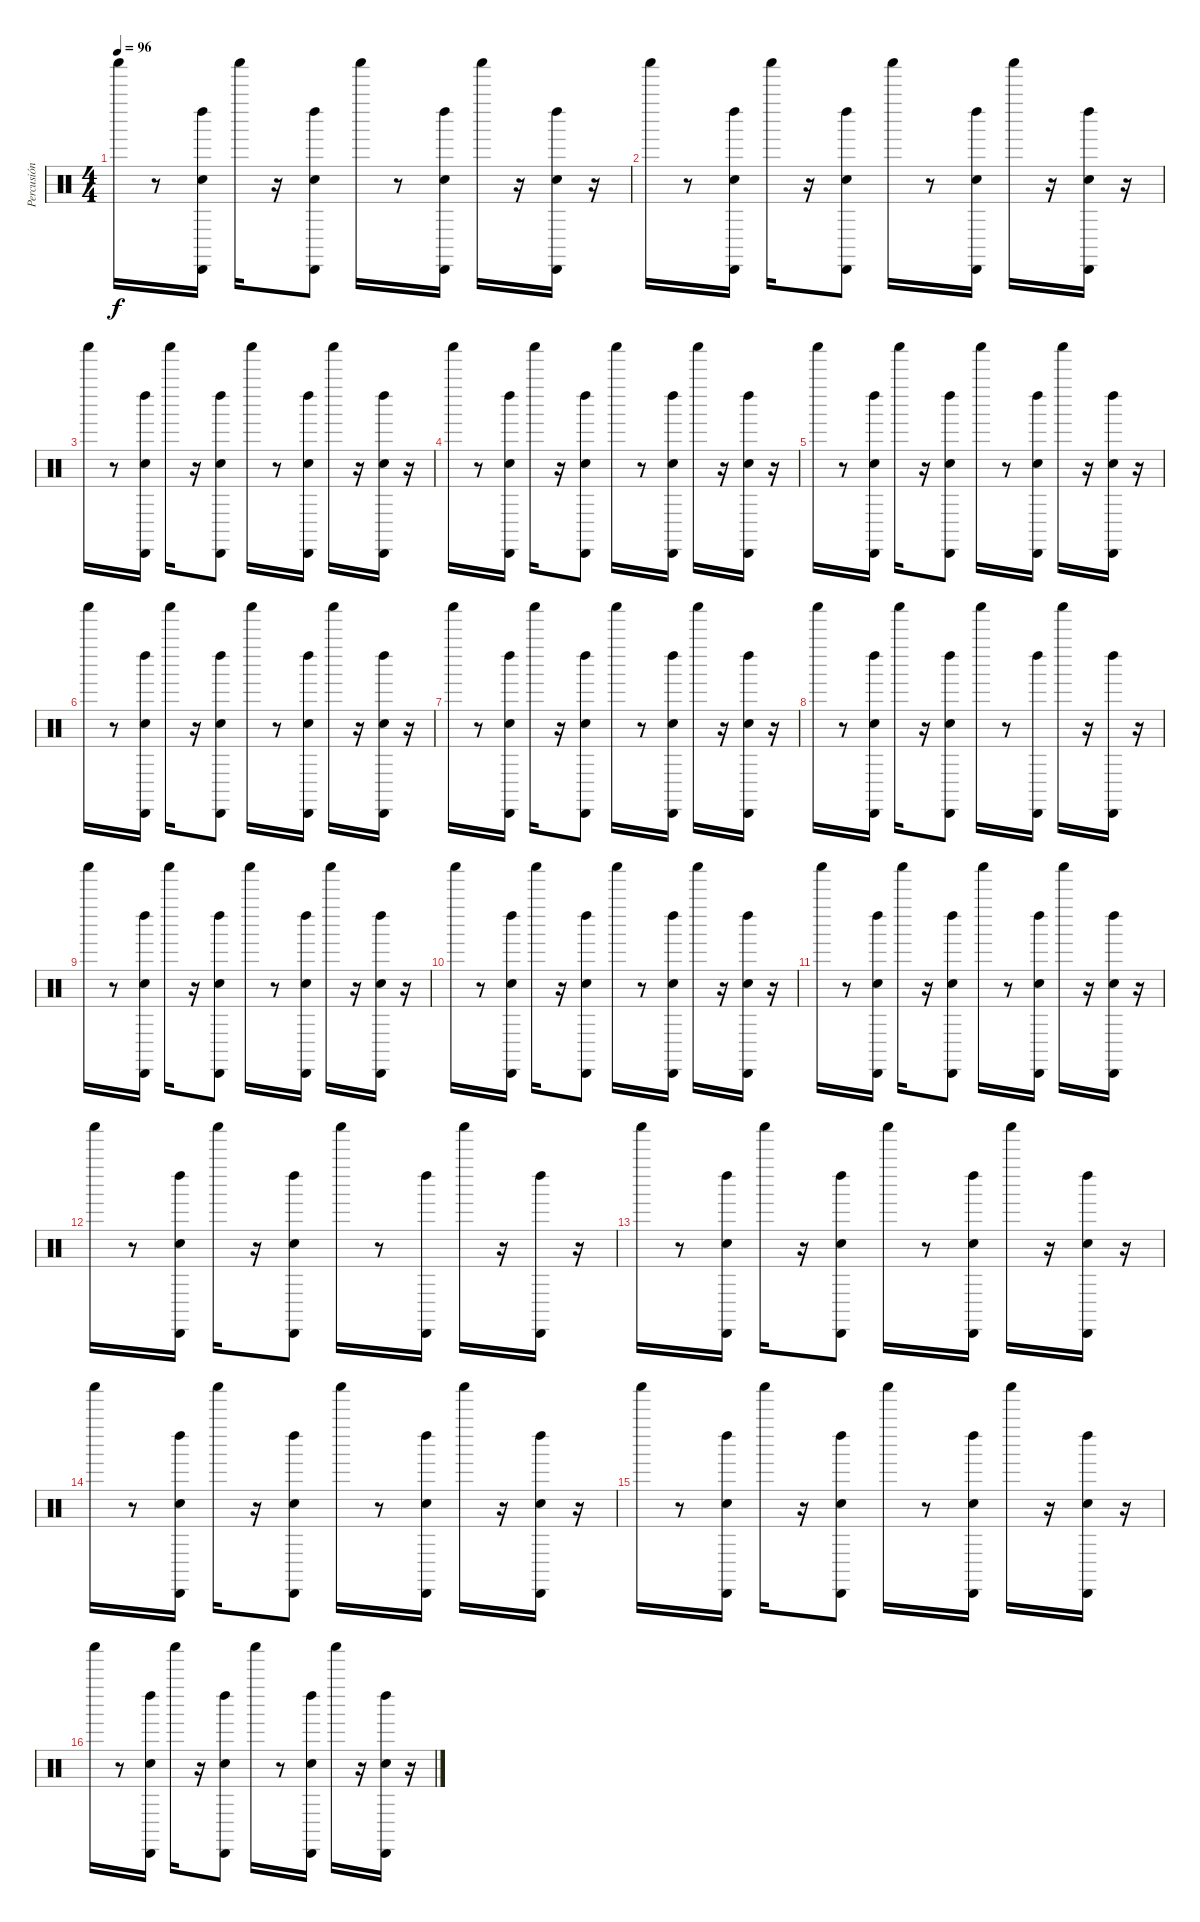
\track ("Percusión" "Percusión") {instrument percussion}
\staff {score}
\articulation defaults
\ts (4 4)
\tempo 96
\clef neutral
\ks c "Shaker (hit)".16{dy f}
r.8 ("Cabasa (hit)" "Left Maraca (hit)" "Hand Clap (hit)").16 "Shaker (hit)".16 r.16 ("Left Maraca (hit)" "Cabasa (hit)" "Hand Clap (hit)").8 "Shaker (hit)".16 r.8 ("Cabasa (hit)" "Left Maraca (hit)" "Hand Clap (hit)").16 "Shaker (hit)".16 r.16 ("Left Maraca (hit)" "Cabasa (hit)" "Hand Clap (hit)").16 r.16 |
"Shaker (hit)".16 r.8 ("Cabasa (hit)" "Left Maraca (hit)" "Hand Clap (hit)").16 "Shaker (hit)".16 r.16 ("Left Maraca (hit)" "Cabasa (hit)" "Hand Clap (hit)").8 "Shaker (hit)".16 r.8 ("Cabasa (hit)" "Left Maraca (hit)" "Hand Clap (hit)").16 "Shaker (hit)".16 r.16 ("Left Maraca (hit)" "Cabasa (hit)" "Hand Clap (hit)").16 r.16 |
"Shaker (hit)".16 r.8 ("Cabasa (hit)" "Left Maraca (hit)" "Hand Clap (hit)").16 "Shaker (hit)".16 r.16 ("Left Maraca (hit)" "Cabasa (hit)" "Hand Clap (hit)").8 "Shaker (hit)".16 r.8 ("Cabasa (hit)" "Left Maraca (hit)" "Hand Clap (hit)").16 "Shaker (hit)".16 r.16 ("Left Maraca (hit)" "Cabasa (hit)" "Hand Clap (hit)").16 r.16 |
"Shaker (hit)".16 r.8 ("Cabasa (hit)" "Left Maraca (hit)" "Hand Clap (hit)").16 "Shaker (hit)".16 r.16 ("Left Maraca (hit)" "Cabasa (hit)" "Hand Clap (hit)").8 "Shaker (hit)".16 r.8 ("Cabasa (hit)" "Left Maraca (hit)" "Hand Clap (hit)").16 "Shaker (hit)".16 r.16 ("Left Maraca (hit)" "Cabasa (hit)" "Hand Clap (hit)").16 r.16 |
"Shaker (hit)".16 r.8 ("Cabasa (hit)" "Left Maraca (hit)" "Hand Clap (hit)").16 "Shaker (hit)".16 r.16 ("Left Maraca (hit)" "Cabasa (hit)" "Hand Clap (hit)").8 "Shaker (hit)".16 r.8 ("Cabasa (hit)" "Left Maraca (hit)" "Hand Clap (hit)").16 "Shaker (hit)".16 r.16 ("Left Maraca (hit)" "Cabasa (hit)" "Hand Clap (hit)").16 r.16 |
"Shaker (hit)".16 r.8 ("Cabasa (hit)" "Left Maraca (hit)" "Hand Clap (hit)").16 "Shaker (hit)".16 r.16 ("Left Maraca (hit)" "Cabasa (hit)" "Hand Clap (hit)").8 "Shaker (hit)".16 r.8 ("Cabasa (hit)" "Left Maraca (hit)" "Hand Clap (hit)").16 "Shaker (hit)".16 r.16 ("Left Maraca (hit)" "Cabasa (hit)" "Hand Clap (hit)").16 r.16 |
"Shaker (hit)".16 r.8 ("Cabasa (hit)" "Left Maraca (hit)" "Hand Clap (hit)").16 "Shaker (hit)".16 r.16 ("Left Maraca (hit)" "Cabasa (hit)" "Hand Clap (hit)").8 "Shaker (hit)".16 r.8 ("Cabasa (hit)" "Left Maraca (hit)" "Hand Clap (hit)").16 "Shaker (hit)".16 r.16 ("Left Maraca (hit)" "Cabasa (hit)" "Hand Clap (hit)").16 r.16 |
"Shaker (hit)".16 r.8 ("Cabasa (hit)" "Left Maraca (hit)" "Hand Clap (hit)").16 "Shaker (hit)".16 r.16 ("Left Maraca (hit)" "Cabasa (hit)" "Hand Clap (hit)").8 "Shaker (hit)".16 r.8 ("Cabasa (hit)" "Left Maraca (hit)").16 "Shaker (hit)".16 r.16 ("Left Maraca (hit)" "Cabasa (hit)").16 r.16 |
"Shaker (hit)".16 r.8 ("Cabasa (hit)" "Left Maraca (hit)" "Hand Clap (hit)").16 "Shaker (hit)".16 r.16 ("Left Maraca (hit)" "Cabasa (hit)" "Hand Clap (hit)").8 "Shaker (hit)".16 r.8 ("Cabasa (hit)" "Left Maraca (hit)" "Hand Clap (hit)").16 "Shaker (hit)".16 r.16 ("Left Maraca (hit)" "Cabasa (hit)" "Hand Clap (hit)").16 r.16 |
"Shaker (hit)".16 r.8 ("Cabasa (hit)" "Left Maraca (hit)" "Hand Clap (hit)").16 "Shaker (hit)".16 r.16 ("Left Maraca (hit)" "Cabasa (hit)" "Hand Clap (hit)").8 "Shaker (hit)".16 r.8 ("Cabasa (hit)" "Left Maraca (hit)" "Hand Clap (hit)").16 "Shaker (hit)".16 r.16 ("Left Maraca (hit)" "Cabasa (hit)" "Hand Clap (hit)").16 r.16 |
"Shaker (hit)".16 r.8 ("Cabasa (hit)" "Left Maraca (hit)" "Hand Clap (hit)").16 "Shaker (hit)".16 r.16 ("Left Maraca (hit)" "Cabasa (hit)" "Hand Clap (hit)").8 "Shaker (hit)".16 r.8 ("Cabasa (hit)" "Left Maraca (hit)" "Hand Clap (hit)").16 "Shaker (hit)".16 r.16 ("Left Maraca (hit)" "Cabasa (hit)" "Hand Clap (hit)").16 r.16 |
"Shaker (hit)".16 r.8 ("Cabasa (hit)" "Left Maraca (hit)" "Hand Clap (hit)").16 "Shaker (hit)".16 r.16 ("Left Maraca (hit)" "Cabasa (hit)" "Hand Clap (hit)").8 "Shaker (hit)".16 r.8 ("Cabasa (hit)" "Left Maraca (hit)").16 "Shaker (hit)".16 r.16 ("Left Maraca (hit)" "Cabasa (hit)").16 r.16 |
"Shaker (hit)".16 r.8 ("Cabasa (hit)" "Left Maraca (hit)" "Hand Clap (hit)").16 "Shaker (hit)".16 r.16 ("Left Maraca (hit)" "Cabasa (hit)" "Hand Clap (hit)").8 "Shaker (hit)".16 r.8 ("Cabasa (hit)" "Left Maraca (hit)" "Hand Clap (hit)").16 "Shaker (hit)".16 r.16 ("Left Maraca (hit)" "Cabasa (hit)" "Hand Clap (hit)").16 r.16 |
"Shaker (hit)".16 r.8 ("Cabasa (hit)" "Left Maraca (hit)" "Hand Clap (hit)").16 "Shaker (hit)".16 r.16 ("Left Maraca (hit)" "Cabasa (hit)" "Hand Clap (hit)").8 "Shaker (hit)".16 r.8 ("Cabasa (hit)" "Left Maraca (hit)" "Hand Clap (hit)").16 "Shaker (hit)".16 r.16 ("Left Maraca (hit)" "Cabasa (hit)" "Hand Clap (hit)").16 r.16 |
"Shaker (hit)".16 r.8 ("Cabasa (hit)" "Left Maraca (hit)" "Hand Clap (hit)").16 "Shaker (hit)".16 r.16 ("Left Maraca (hit)" "Cabasa (hit)" "Hand Clap (hit)").8 "Shaker (hit)".16 r.8 ("Cabasa (hit)" "Left Maraca (hit)" "Hand Clap (hit)").16 "Shaker (hit)".16 r.16 ("Left Maraca (hit)" "Cabasa (hit)" "Hand Clap (hit)").16 r.16 |
"Shaker (hit)".16 r.8 ("Cabasa (hit)" "Left Maraca (hit)" "Hand Clap (hit)").16 "Shaker (hit)".16 r.16 ("Left Maraca (hit)" "Cabasa (hit)" "Hand Clap (hit)").8 "Shaker (hit)".16 r.8 ("Cabasa (hit)" "Left Maraca (hit)" "Hand Clap (hit)").16 "Shaker (hit)".16 r.16 ("Left Maraca (hit)" "Cabasa (hit)" "Hand Clap (hit)").16 r.16
